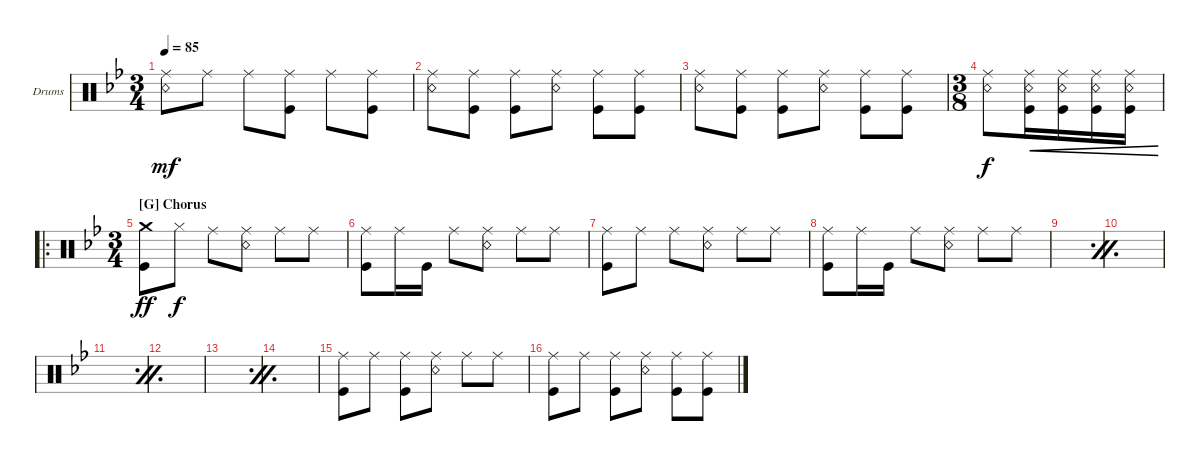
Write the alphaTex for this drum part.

\bracketExtendMode groupsimilarinstruments
\firstSystemTrackNameOrientation horizontal
\otherSystemsTrackNameOrientation horizontal
\track ("Drums" "Drums") {instrument percussion}
\staff {score}
\articulation defaults
\ts (3 4)
\tempo 85
\clef neutral
\scale
0.333333
\ks bb
("Ride (middle)" "Snare (rim shot)").8{dy mf} "Ride (middle)".8 "Ride (middle)".8 ("Ride (middle)" "Kick (hit)").8 "Ride (middle)".8 ("Ride (middle)" "Kick (hit)").8 |
\scale
0.333333 ("Snare (rim shot)" "Ride (middle)").8 ("Ride (middle)" "Kick (hit)").8 ("Ride (middle)" "Kick (hit)").8 ("Ride (middle)" "Snare (rim shot)").8 ("Ride (middle)" "Kick (hit)").8 ("Ride (middle)" "Kick (hit)").8 |
\scale
0.333333 ("Ride (middle)" "Snare (rim shot)").8 ("Ride (middle)" "Kick (hit)").8 ("Ride (middle)" "Kick (hit)").8 ("Ride (middle)" "Snare (rim shot)").8 ("Ride (middle)" "Kick (hit)").8 ("Ride (middle)" "Kick (hit)").8 |
\ts (3 8)
\scale
0.333333 ("Ride (middle)" "Snare (rim shot)").8{dy f} ("Ride (middle)" "Snare (rim shot)" "Kick (hit)").16{cre} ("Ride (middle)" "Kick (hit)" "Snare (rim shot)").16{cre} ("Snare (rim shot)" "Kick (hit)" "Ride (middle)").16{cre} ("Kick (hit)" "Snare (rim shot)" "Ride (middle)").16{cre} |
\ro
\ts (3 4)
\section ("G" "Chorus")
\scale
0.333333 ("Crash medium (hit)" "Kick (hit)").8{dy ff} "Hi-Hat (closed)".8{dy f} "Ride (middle)".8 ("Ride (middle)" "Snare (rim shot)").8 "Ride (middle)".8 "Ride (middle)".8 |
\scale
0.333333 ("Ride (middle)" "Kick (hit)").8 "Ride (middle)".16 "Kick (hit)".16 "Ride (middle)".8 ("Ride (middle)" "Snare (rim shot)").8 "Ride (middle)".8 "Ride (middle)".8 |
\scale
0.333333 ("Kick (hit)" "Ride (middle)").8 "Ride (middle)".8 "Ride (middle)".8 ("Ride (middle)" "Snare (rim shot)").8 "Ride (middle)".8 "Ride (middle)".8 |
\scale
0.333333 ("Ride (middle)" "Kick (hit)").8 "Ride (middle)".16 "Kick (hit)".16 "Ride (middle)".8 ("Ride (middle)" "Snare (rim shot)").8 "Ride (middle)".8 "Ride (middle)".8 |
\simile firstofdouble
|
\simile secondofdouble
|
\simile firstofdouble
|
\simile secondofdouble
|
\simile firstofdouble
|
\simile secondofdouble
|
\simile none
("Ride (middle)" "Kick (hit)").8 "Ride (middle)".8 ("Ride (middle)" "Kick (hit)").8 ("Ride (middle)" "Snare (rim shot)").8 "Ride (middle)".8 "Ride (middle)".8 |
("Ride (middle)" "Kick (hit)").8 "Ride (middle)".8 ("Ride (middle)" "Kick (hit)").8 ("Ride (middle)" "Snare (rim shot)").8 ("Ride (middle)" "Kick (hit)").8 ("Ride (middle)" "Kick (hit)").8
